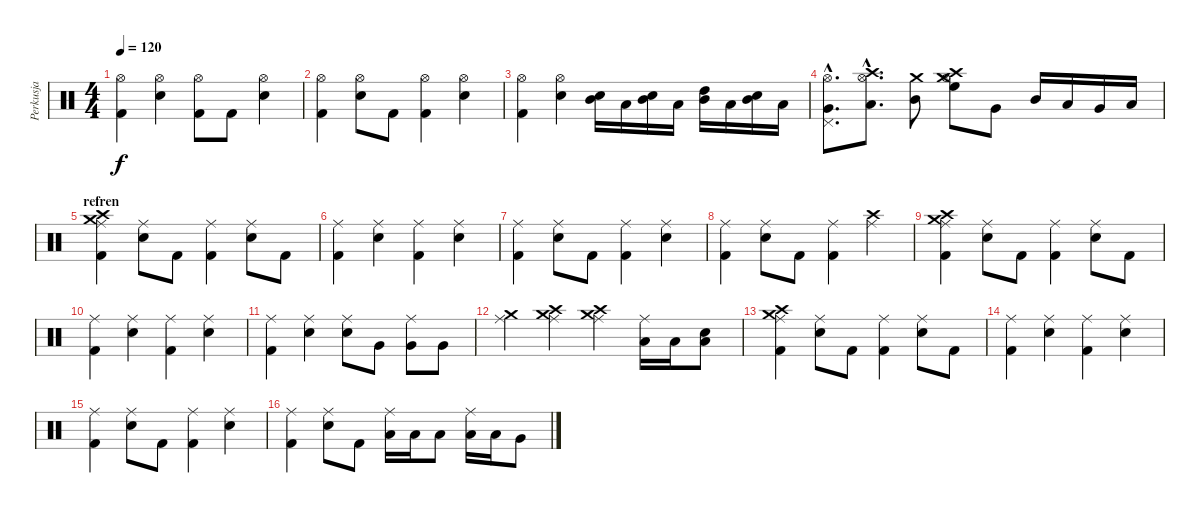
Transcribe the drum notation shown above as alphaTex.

\track ("Perkusja" "Perkusja") {instrument percussion}
\staff {score}
\articulation defaults
\ts (4 4)
\tempo 120
\clef neutral
\ks c
("Kick (hit) 2" "Hi-Hat (open)").4{dy f} ("Snare (hit) 2" "Hi-Hat (open)").4 ("Kick (hit) 2" "Hi-Hat (open)").8 "Kick (hit) 2".8 ("Snare (hit) 2" "Hi-Hat (open)").4 |
("Kick (hit) 2" "Hi-Hat (open)").4 ("Snare (hit) 2" "Hi-Hat (open)").8 "Kick (hit) 2".8 ("Kick (hit) 2" "Hi-Hat (open)").4 ("Snare (hit) 2" "Hi-Hat (open)").4 |
("Kick (hit) 2" "Hi-Hat (open)").4 ("Snare (hit) 2" "Hi-Hat (open)").4 ("Snare (hit) 2" "Mid Tom (hit)").16 "Low Tom (hit)".16 ("Electric Snare (hit)" "Mid Tom (hit)").16 "Low Tom (hit)".16 ("High Tom (hit)" "Mid Tom (hit)").16 "Low Tom (hit)".16 ("Electric Snare (hit)" "Mid Tom (hit)").16 "Low Tom (hit)".16 |
("Pedal Hi-Hat (hit)"{hac} "Very Low Tom (hit)"{hac} "Hi-Hat (open)"{hac}).8{d} ("Crash high (hit)"{hac} "Low Tom (hit)"{hac} "Hi-Hat (open)"{hac}).8{d} ("Crash medium (hit)" "Mid Tom (hit)").8 ("Crash high (hit)" "Crash medium (hit)" "High Floor Tom (hit)" "Hi-Hat (open)").8 "Very Low Tom (hit)".8 "Mid Tom (hit)".16 "Low Tom (hit)".16 "Very Low Tom (hit)".16 "Low Floor Tom (hit)".16 |
\section ("" "refren")
("Crash high (hit)" "Crash medium (hit)" "Kick (hit) 2" "Ride (middle)").4 ("Snare (hit) 2" "Ride (middle)").8 "Kick (hit) 2".8 ("Kick (hit) 2" "Ride (middle)").4 ("Snare (hit) 2" "Ride (middle)").8 "Kick (hit) 2".8 |
("Kick (hit) 2" "Ride (middle)").4 ("Snare (hit) 2" "Ride (middle)").4 ("Kick (hit) 2" "Ride (middle)").4 ("Snare (hit) 2" "Ride (middle)").4 |
("Kick (hit) 2" "Ride (middle)").4 ("Snare (hit) 2" "Ride (middle)").8 "Kick (hit) 2".8 ("Kick (hit) 2" "Ride (middle)").4 ("Snare (hit) 2" "Ride (middle)").4 |
("Kick (hit) 2" "Ride (middle)").4 ("Snare (hit) 2" "Ride (middle)").8 "Kick (hit) 2".8 ("Kick (hit) 2" "Ride (middle)").4 ("Crash high (hit)" "Ride (middle)").4 |
("Crash high (hit)" "Crash medium (hit)" "Kick (hit) 2" "Ride (middle)").4 ("Snare (hit) 2" "Ride (middle)").8 "Kick (hit) 2".8 ("Kick (hit) 2" "Ride (middle)").4 ("Snare (hit) 2" "Ride (middle)").8 "Kick (hit) 2".8 |
("Kick (hit) 2" "Ride (middle)").4 ("Snare (hit) 2" "Ride (middle)").4 ("Kick (hit) 2" "Ride (middle)").4 ("Snare (hit) 2" "Ride (middle)").4 |
("Kick (hit) 2" "Ride (middle)").4 ("Snare (hit) 2" "Ride (middle)").4 ("Electric Snare (hit)" "Ride (middle)").8 "Very Low Tom (hit)".8 ("Very Low Tom (hit)" "Ride (middle)").8 "Very Low Tom (hit)".8 |
("Crash medium (hit)" "Ride (middle)").4 ("Crash medium (hit)" "Crash high (hit)" "Ride (middle)").4 ("Crash high (hit)" "Crash medium (hit)" "Ride (middle)").4 ("Low Tom (hit)" "Ride (middle)").16 "Low Tom (hit)".16 ("Snare (hit) 2" "Low Floor Tom (hit)").8 |
("Crash high (hit)" "Crash medium (hit)" "Kick (hit) 2" "Ride (middle)").4 ("Snare (hit) 2" "Ride (middle)").8 "Kick (hit) 2".8 ("Kick (hit) 2" "Ride (middle)").4 ("Snare (hit) 2" "Ride (middle)").8 "Kick (hit) 2".8 |
("Kick (hit) 2" "Ride (middle)").4 ("Snare (hit) 2" "Ride (middle)").4 ("Kick (hit) 2" "Ride (middle)").4 ("Snare (hit) 2" "Ride (middle)").4 |
("Kick (hit) 2" "Ride (middle)").4 ("Snare (hit) 2" "Ride (middle)").8 "Kick (hit) 2".8 ("Kick (hit) 2" "Ride (middle)").4 ("Snare (hit) 2" "Ride (middle)").4 |
("Kick (hit) 2" "Ride (middle)").4 ("Snare (hit) 2" "Ride (middle)").8 "Kick (hit) 2".8 ("Low Tom (hit)" "Ride (middle)").16 "Low Tom (hit)".16 "Low Tom (hit)".8 ("Low Tom (hit)" "Ride (middle)").16 "Low Tom (hit)".16 "Very Low Tom (hit)".8
